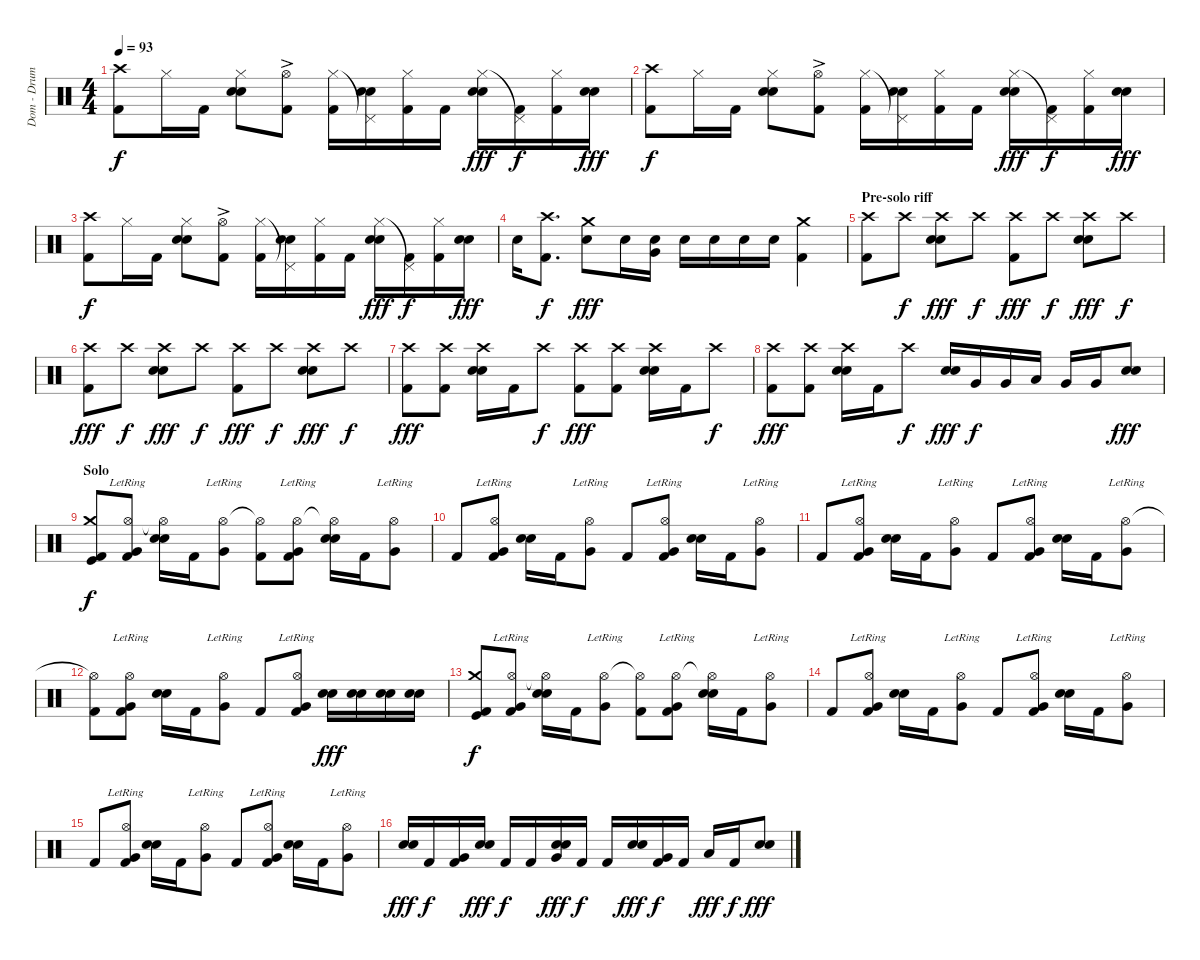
\track ("Dom - Drums" "Dom - Drum") {instrument percussion}
\staff {score}
\articulation defaults
\ts (4 4)
\tempo 93
\clef neutral
\ks c
("Crash high (hit)" "Kick (hit) 2").8{dy f} "Hi-Hat (closed)".16 "Kick (hit) 2".16 ("Hi-Hat (closed)" "Snare (hit) 2" "Electric Snare (hit)").8 ("Hi-Hat (open)"{ac} "Kick (hit) 2").8 ("Hi-Hat (closed)" "Kick (hit) 2").16 ("Pedal Hi-Hat (hit)"{t} "Snare (hit) 2" "Electric Snare (hit)").16 ("Hi-Hat (closed)" "Kick (hit) 2").16 "Kick (hit) 2".16 ("Hi-Hat (closed)" "Snare (hit) 2" "Electric Snare (hit)").16{dy fff} ("Pedal Hi-Hat (hit)"{t} "Kick (hit) 2").16{dy f} ("Hi-Hat (closed)" "Kick (hit) 2").16 ("Snare (hit) 2" "Electric Snare (hit)").16{dy fff} |
("Crash high (hit)" "Kick (hit) 2").8{dy f} "Hi-Hat (closed)".16 "Kick (hit) 2".16 ("Hi-Hat (closed)" "Snare (hit) 2" "Electric Snare (hit)").8 ("Hi-Hat (open)"{ac} "Kick (hit) 2").8 ("Hi-Hat (closed)" "Kick (hit) 2").16 ("Pedal Hi-Hat (hit)"{t} "Snare (hit) 2" "Electric Snare (hit)").16 ("Hi-Hat (closed)" "Kick (hit) 2").16 "Kick (hit) 2".16 ("Hi-Hat (closed)" "Snare (hit) 2" "Electric Snare (hit)").16{dy fff} ("Pedal Hi-Hat (hit)"{t} "Kick (hit) 2").16{dy f} ("Hi-Hat (closed)" "Kick (hit) 2").16 ("Snare (hit) 2" "Electric Snare (hit)").16{dy fff} |
("Crash high (hit)" "Kick (hit) 2").8{dy f} "Hi-Hat (closed)".16 "Kick (hit) 2".16 ("Hi-Hat (closed)" "Snare (hit) 2" "Electric Snare (hit)").8 ("Hi-Hat (open)"{ac} "Kick (hit) 2").8 ("Hi-Hat (closed)" "Kick (hit) 2").16 ("Pedal Hi-Hat (hit)"{t} "Snare (hit) 2" "Electric Snare (hit)").16 ("Hi-Hat (closed)" "Kick (hit) 2").16 "Kick (hit) 2".16 ("Hi-Hat (closed)" "Snare (hit) 2" "Electric Snare (hit)").16{dy fff} ("Pedal Hi-Hat (hit)"{t} "Kick (hit) 2").16{dy f} ("Hi-Hat (closed)" "Kick (hit) 2").16 ("Snare (hit) 2" "Electric Snare (hit)").16{dy fff} |
"Snare (hit) 2".16 ("Crash high (hit)" "Kick (hit) 2").8{d dy f} ("Crash medium (hit)" "Snare (hit) 2").8{dy fff} "Snare (hit) 2".16 ("Snare (hit) 2" "Very Low Tom (hit)").16 "Snare (hit) 2".16 "Snare (hit) 2".16 "Snare (hit) 2".16 "Snare (hit) 2".16 ("Crash medium (hit)" "Kick (hit) 2").4 |
\section ("" "Pre-solo riff")
("Crash high (hit)" "Kick (hit) 2").8 "Crash high (hit)".8{dy f} ("Crash high (hit)" "Electric Snare (hit)" "Snare (hit) 2").8{dy fff} "Crash high (hit)".8{dy f} ("Crash high (hit)" "Kick (hit) 2").8{dy fff} "Crash high (hit)".8{dy f} ("Crash high (hit)" "Electric Snare (hit)" "Snare (hit) 2").8{dy fff} "Crash high (hit)".8{dy f} |
("Crash high (hit)" "Kick (hit) 2").8{dy fff} "Crash high (hit)".8{dy f} ("Crash high (hit)" "Electric Snare (hit)" "Snare (hit) 2").8{dy fff} "Crash high (hit)".8{dy f} ("Crash high (hit)" "Kick (hit) 2").8{dy fff} "Crash high (hit)".8{dy f} ("Crash high (hit)" "Electric Snare (hit)" "Snare (hit) 2").8{dy fff} "Crash high (hit)".8{dy f} |
("Crash high (hit)" "Kick (hit) 2").8{dy fff} ("Crash high (hit)" "Kick (hit) 2").8 ("Crash high (hit)" "Electric Snare (hit)" "Snare (hit) 2").16 "Kick (hit) 2".16 "Crash high (hit)".8{dy f} ("Crash high (hit)" "Kick (hit) 2").8{dy fff} ("Crash high (hit)" "Kick (hit) 2").8 ("Crash high (hit)" "Electric Snare (hit)" "Snare (hit) 2").16 "Kick (hit) 2".16 "Crash high (hit)".8{dy f} |
("Crash high (hit)" "Kick (hit) 2").8{dy fff} ("Crash high (hit)" "Kick (hit) 2").8 ("Crash high (hit)" "Electric Snare (hit)" "Snare (hit) 2").16 "Kick (hit) 2".16 "Crash high (hit)".8{dy f} ("Electric Snare (hit)" "Snare (hit) 2").16{dy fff} "Very Low Tom (hit)".16{dy f} "Very Low Tom (hit)".16 "Low Tom (hit)".16 "Very Low Tom (hit)".16 "Very Low Tom (hit)".16 ("Electric Snare (hit)" "Snare (hit) 2").8{dy fff} |
\section ("" "Solo")
("Crash medium (hit)" "Kick (hit)" "Kick (hit) 2").8{dy f} ("Hi-Hat (open)"{lr} "Very Low Tom (hit)" "Kick (hit) 2").8 ("Hi-Hat (open)"{t} "Electric Snare (hit)" "Snare (hit) 2").16 "Kick (hit) 2".16 ("Hi-Hat (open)"{lr} "Very Low Tom (hit)").8 ("Hi-Hat (open)"{t} "Kick (hit) 2").8 ("Hi-Hat (open)"{lr} "Very Low Tom (hit)" "Kick (hit) 2").8 ("Hi-Hat (open)"{t} "Electric Snare (hit)" "Snare (hit) 2").16 "Kick (hit) 2".16 ("Hi-Hat (open)"{lr} "Very Low Tom (hit)").8 |
"Kick (hit) 2".8 ("Hi-Hat (open)"{lr} "Very Low Tom (hit)" "Kick (hit) 2").8 ("Electric Snare (hit)" "Snare (hit) 2").16 "Kick (hit) 2".16 ("Hi-Hat (open)"{lr} "Very Low Tom (hit)").8 "Kick (hit) 2".8 ("Hi-Hat (open)"{lr} "Very Low Tom (hit)" "Kick (hit) 2").8 ("Electric Snare (hit)" "Snare (hit) 2").16 "Kick (hit) 2".16 ("Hi-Hat (open)"{lr} "Very Low Tom (hit)").8 |
"Kick (hit) 2".8 ("Hi-Hat (open)"{lr} "Very Low Tom (hit)" "Kick (hit) 2").8 ("Electric Snare (hit)" "Snare (hit) 2").16 "Kick (hit) 2".16 ("Hi-Hat (open)"{lr} "Very Low Tom (hit)").8 "Kick (hit) 2".8 ("Hi-Hat (open)"{lr} "Very Low Tom (hit)" "Kick (hit) 2").8 ("Electric Snare (hit)" "Snare (hit) 2").16 "Kick (hit) 2".16 ("Hi-Hat (open)"{lr} "Very Low Tom (hit)").8 |
("Hi-Hat (open)"{t} "Kick (hit) 2").8 ("Hi-Hat (open)"{lr} "Very Low Tom (hit)" "Kick (hit) 2").8 ("Electric Snare (hit)" "Snare (hit) 2").16 "Kick (hit) 2".16 ("Hi-Hat (open)"{lr} "Very Low Tom (hit)").8 "Kick (hit) 2".8 ("Hi-Hat (open)"{lr} "Very Low Tom (hit)" "Kick (hit) 2").8 ("Snare (hit) 2" "Electric Snare (hit)").16{dy fff} ("Snare (hit) 2" "Electric Snare (hit)").16 ("Snare (hit) 2" "Electric Snare (hit)").16 ("Snare (hit) 2" "Electric Snare (hit)").16 |
("Crash medium (hit)" "Kick (hit)" "Kick (hit) 2").8{dy f} ("Hi-Hat (open)"{lr} "Very Low Tom (hit)" "Kick (hit) 2").8 ("Hi-Hat (open)"{t} "Electric Snare (hit)" "Snare (hit) 2").16 "Kick (hit) 2".16 ("Hi-Hat (open)"{lr} "Very Low Tom (hit)").8 ("Hi-Hat (open)"{t} "Kick (hit) 2").8 ("Hi-Hat (open)"{lr} "Very Low Tom (hit)" "Kick (hit) 2").8 ("Hi-Hat (open)"{t} "Electric Snare (hit)" "Snare (hit) 2").16 "Kick (hit) 2".16 ("Hi-Hat (open)"{lr} "Very Low Tom (hit)").8 |
"Kick (hit) 2".8 ("Hi-Hat (open)"{lr} "Very Low Tom (hit)" "Kick (hit) 2").8 ("Electric Snare (hit)" "Snare (hit) 2").16 "Kick (hit) 2".16 ("Hi-Hat (open)"{lr} "Very Low Tom (hit)").8 "Kick (hit) 2".8 ("Hi-Hat (open)"{lr} "Very Low Tom (hit)" "Kick (hit) 2").8 ("Electric Snare (hit)" "Snare (hit) 2").16 "Kick (hit) 2".16 ("Hi-Hat (open)"{lr} "Very Low Tom (hit)").8 |
"Kick (hit) 2".8 ("Hi-Hat (open)"{lr} "Very Low Tom (hit)" "Kick (hit) 2").8 ("Electric Snare (hit)" "Snare (hit) 2").16 "Kick (hit) 2".16 ("Hi-Hat (open)"{lr} "Very Low Tom (hit)").8 "Kick (hit) 2".8 ("Hi-Hat (open)"{lr} "Very Low Tom (hit)" "Kick (hit) 2").8 ("Electric Snare (hit)" "Snare (hit) 2").16 "Kick (hit) 2".16 ("Hi-Hat (open)"{lr} "Very Low Tom (hit)").8 |
("Electric Snare (hit)" "Snare (hit) 2").16{dy fff} "Kick (hit) 2".16{dy f} ("Very Low Tom (hit)" "Kick (hit) 2").16 ("Electric Snare (hit)" "Snare (hit) 2").16{dy fff} "Kick (hit) 2".16{dy f} "Kick (hit) 2".16 ("Electric Snare (hit)" "Snare (hit) 2" "Very Low Tom (hit)").16{dy fff} "Kick (hit) 2".16{dy f} "Kick (hit) 2".16 ("Electric Snare (hit)" "Snare (hit) 2").16{dy fff} ("Very Low Tom (hit)" "Kick (hit) 2").16{dy f} "Kick (hit) 2".16 "Low Tom (hit)".16{dy fff} "Kick (hit) 2".16{dy f} ("Electric Snare (hit)" "Snare (hit) 2").8{dy fff}
